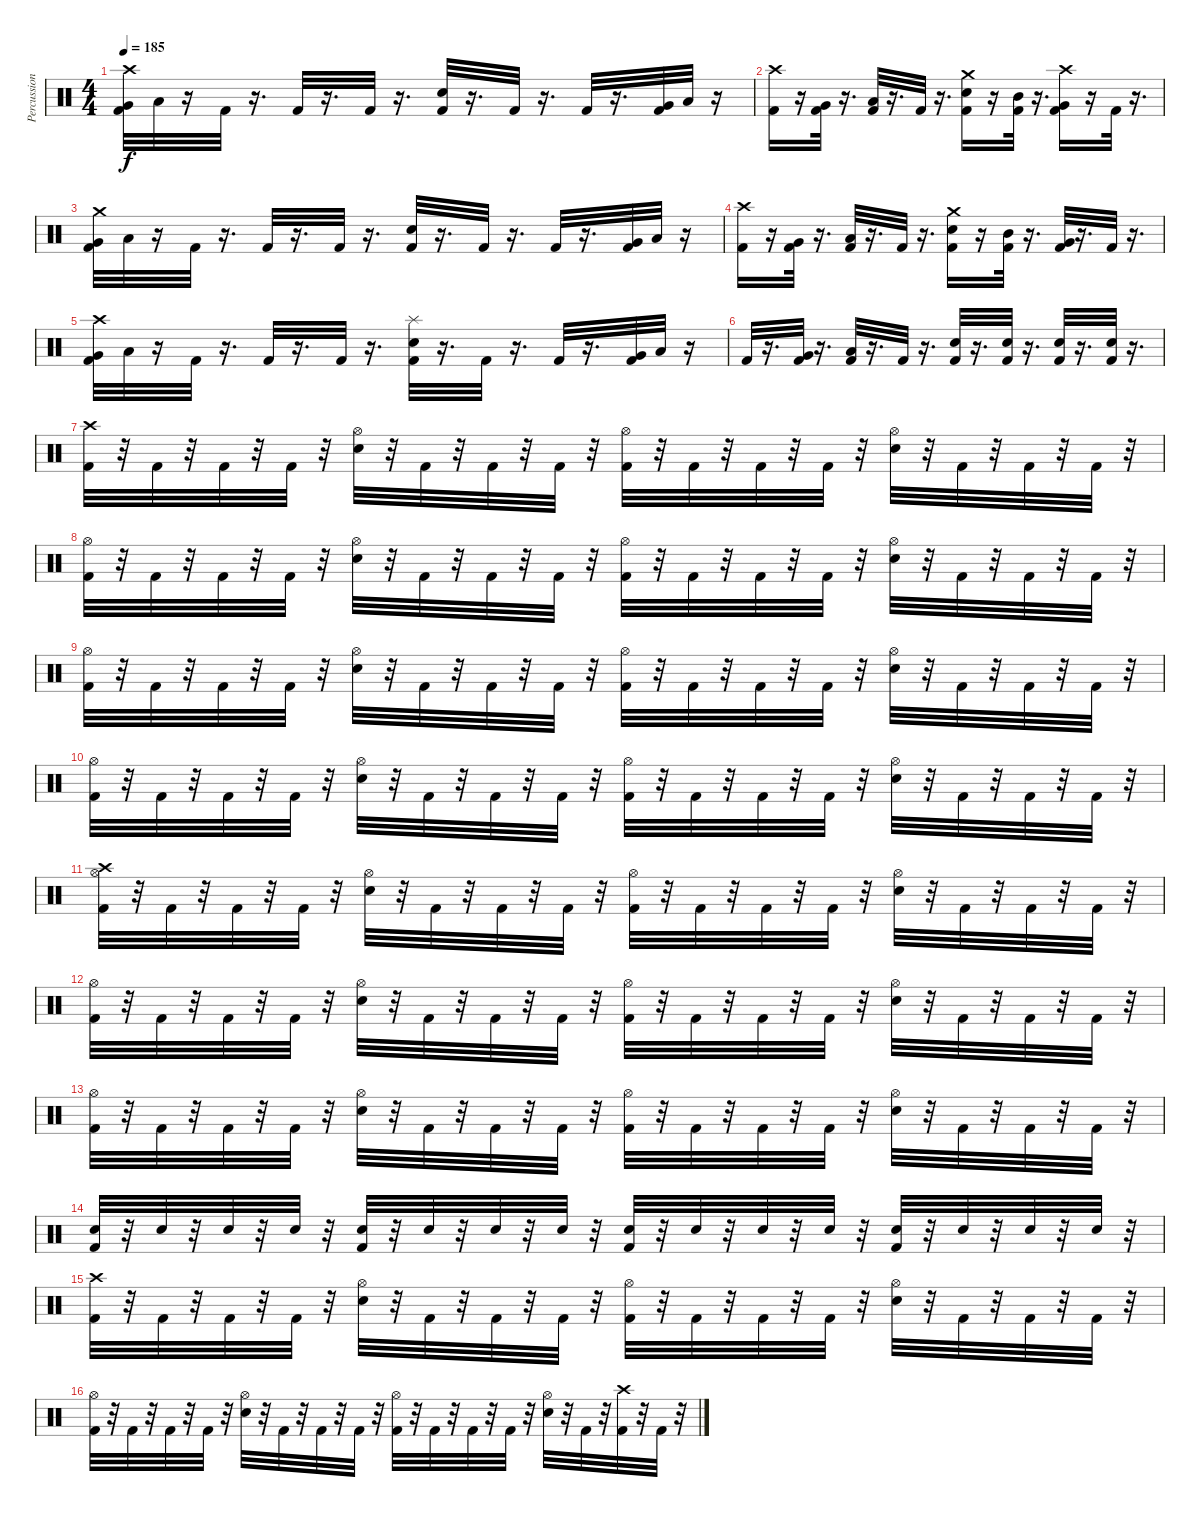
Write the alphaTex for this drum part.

\track ("Percussion" "Percussion") {instrument percussion}
\staff {score}
\articulation defaults
\ts (4 4)
\tempo 185
\clef neutral
\ks c
("Kick (hit) 2" "Very Low Tom (hit)" "Crash high (hit)").32{dy f} "Low Floor Tom (hit)".32 r.16 "Kick (hit) 2".32 r.16{d} "Kick (hit) 2".32 r.16{d} "Kick (hit) 2".32 r.16{d} ("Kick (hit) 2" "Snare (hit) 2").32 r.16{d} "Kick (hit) 2".32 r.16{d} "Kick (hit) 2".32 r.16{d} ("Kick (hit) 2" "Very Low Tom (hit)").32 "Low Floor Tom (hit)".32 r.16 |
("Kick (hit) 2" "Crash high (hit)").16 r.16 ("Kick (hit) 2" "Very Low Tom (hit)").32 r.16{d} ("Kick (hit) 2" "Low Floor Tom (hit)").32 r.16{d} "Kick (hit) 2".32 r.16{d} ("Kick (hit) 2" "Snare (hit) 2" "Crash medium (hit)").16 r.16 ("Kick (hit) 2" "Mid Tom (hit)").32 r.16{d} ("Kick (hit) 2" "Very Low Tom (hit)" "Crash high (hit)").16 r.16 "Kick (hit) 2".32 r.16{d} |
("Kick (hit) 2" "Very Low Tom (hit)" "Crash medium (hit)").32 "Low Floor Tom (hit)".32 r.16 "Kick (hit) 2".32 r.16{d} "Kick (hit) 2".32 r.16{d} "Kick (hit) 2".32 r.16{d} ("Kick (hit) 2" "Snare (hit) 2").32 r.16{d} "Kick (hit) 2".32 r.16{d} "Kick (hit) 2".32 r.16{d} ("Kick (hit) 2" "Very Low Tom (hit)").32 "Low Floor Tom (hit)".32 r.16 |
("Kick (hit) 2" "Crash high (hit)").16 r.16 ("Kick (hit) 2" "Very Low Tom (hit)").32 r.16{d} ("Kick (hit) 2" "Low Floor Tom (hit)").32 r.16{d} "Kick (hit) 2".32 r.16{d} ("Kick (hit) 2" "Snare (hit) 2" "Crash medium (hit)").16 r.16 ("Kick (hit) 2" "Mid Tom (hit)").32 r.16{d} ("Kick (hit) 2" "Very Low Tom (hit)").32 r.16{d} "Kick (hit) 2".32 r.16{d} |
("Kick (hit) 2" "Very Low Tom (hit)" "Crash high (hit)").32 "Low Floor Tom (hit)".32 r.16 "Kick (hit) 2".32 r.16{d} "Kick (hit) 2".32 r.16{d} "Kick (hit) 2".32 r.16{d} ("Kick (hit) 2" "Snare (hit) 2" "Splash (hit)").32 r.16{d} "Kick (hit) 2".32 r.16{d} "Kick (hit) 2".32 r.16{d} ("Kick (hit) 2" "Very Low Tom (hit)").32 "Low Floor Tom (hit)".32 r.16 |
"Kick (hit) 2".32 r.16{d} ("Kick (hit) 2" "Very Low Tom (hit)").32 r.16{d} ("Kick (hit) 2" "Low Floor Tom (hit)").32 r.16{d} "Kick (hit) 2".32 r.16{d} ("Kick (hit) 2" "Snare (hit) 2").32 r.16{d} ("Kick (hit) 2" "Snare (hit) 2").32 r.16{d} ("Kick (hit) 2" "Snare (hit) 2").32 r.16{d} ("Kick (hit) 2" "Snare (hit) 2").32 r.16{d} |
("Kick (hit) 2" "Crash high (hit)").32 r.32 "Kick (hit) 2".32 r.32 "Kick (hit) 2".32 r.32 "Kick (hit) 2".32 r.32 ("Snare (hit) 2" "Hi-Hat (open)").32 r.32 "Kick (hit) 2".32 r.32 "Kick (hit) 2".32 r.32 "Kick (hit) 2".32 r.32 ("Kick (hit) 2" "Hi-Hat (open)").32 r.32 "Kick (hit) 2".32 r.32 "Kick (hit) 2".32 r.32 "Kick (hit) 2".32 r.32 ("Snare (hit) 2" "Hi-Hat (open)").32 r.32 "Kick (hit) 2".32 r.32 "Kick (hit) 2".32 r.32 "Kick (hit) 2".32 r.32 |
("Kick (hit) 2" "Hi-Hat (open)").32 r.32 "Kick (hit) 2".32 r.32 "Kick (hit) 2".32 r.32 "Kick (hit) 2".32 r.32 ("Snare (hit) 2" "Hi-Hat (open)").32 r.32 "Kick (hit) 2".32 r.32 "Kick (hit) 2".32 r.32 "Kick (hit) 2".32 r.32 ("Kick (hit) 2" "Hi-Hat (open)").32 r.32 "Kick (hit) 2".32 r.32 "Kick (hit) 2".32 r.32 "Kick (hit) 2".32 r.32 ("Snare (hit) 2" "Hi-Hat (open)").32 r.32 "Kick (hit) 2".32 r.32 "Kick (hit) 2".32 r.32 "Kick (hit) 2".32 r.32 |
("Kick (hit) 2" "Hi-Hat (open)").32 r.32 "Kick (hit) 2".32 r.32 "Kick (hit) 2".32 r.32 "Kick (hit) 2".32 r.32 ("Snare (hit) 2" "Hi-Hat (open)").32 r.32 "Kick (hit) 2".32 r.32 "Kick (hit) 2".32 r.32 "Kick (hit) 2".32 r.32 ("Kick (hit) 2" "Hi-Hat (open)").32 r.32 "Kick (hit) 2".32 r.32 "Kick (hit) 2".32 r.32 "Kick (hit) 2".32 r.32 ("Snare (hit) 2" "Hi-Hat (open)").32 r.32 "Kick (hit) 2".32 r.32 "Kick (hit) 2".32 r.32 "Kick (hit) 2".32 r.32 |
("Kick (hit) 2" "Hi-Hat (open)").32 r.32 "Kick (hit) 2".32 r.32 "Kick (hit) 2".32 r.32 "Kick (hit) 2".32 r.32 ("Snare (hit) 2" "Hi-Hat (open)").32 r.32 "Kick (hit) 2".32 r.32 "Kick (hit) 2".32 r.32 "Kick (hit) 2".32 r.32 ("Kick (hit) 2" "Hi-Hat (open)").32 r.32 "Kick (hit) 2".32 r.32 "Kick (hit) 2".32 r.32 "Kick (hit) 2".32 r.32 ("Snare (hit) 2" "Hi-Hat (open)").32 r.32 "Kick (hit) 2".32 r.32 "Kick (hit) 2".32 r.32 "Kick (hit) 2".32 r.32 |
("Kick (hit) 2" "Hi-Hat (open)" "Crash high (hit)").32 r.32 "Kick (hit) 2".32 r.32 "Kick (hit) 2".32 r.32 "Kick (hit) 2".32 r.32 ("Snare (hit) 2" "Hi-Hat (open)").32 r.32 "Kick (hit) 2".32 r.32 "Kick (hit) 2".32 r.32 "Kick (hit) 2".32 r.32 ("Kick (hit) 2" "Hi-Hat (open)").32 r.32 "Kick (hit) 2".32 r.32 "Kick (hit) 2".32 r.32 "Kick (hit) 2".32 r.32 ("Snare (hit) 2" "Hi-Hat (open)").32 r.32 "Kick (hit) 2".32 r.32 "Kick (hit) 2".32 r.32 "Kick (hit) 2".32 r.32 |
("Kick (hit) 2" "Hi-Hat (open)").32 r.32 "Kick (hit) 2".32 r.32 "Kick (hit) 2".32 r.32 "Kick (hit) 2".32 r.32 ("Snare (hit) 2" "Hi-Hat (open)").32 r.32 "Kick (hit) 2".32 r.32 "Kick (hit) 2".32 r.32 "Kick (hit) 2".32 r.32 ("Kick (hit) 2" "Hi-Hat (open)").32 r.32 "Kick (hit) 2".32 r.32 "Kick (hit) 2".32 r.32 "Kick (hit) 2".32 r.32 ("Snare (hit) 2" "Hi-Hat (open)").32 r.32 "Kick (hit) 2".32 r.32 "Kick (hit) 2".32 r.32 "Kick (hit) 2".32 r.32 |
("Kick (hit) 2" "Hi-Hat (open)").32 r.32 "Kick (hit) 2".32 r.32 "Kick (hit) 2".32 r.32 "Kick (hit) 2".32 r.32 ("Snare (hit) 2" "Hi-Hat (open)").32 r.32 "Kick (hit) 2".32 r.32 "Kick (hit) 2".32 r.32 "Kick (hit) 2".32 r.32 ("Kick (hit) 2" "Hi-Hat (open)").32 r.32 "Kick (hit) 2".32 r.32 "Kick (hit) 2".32 r.32 "Kick (hit) 2".32 r.32 ("Snare (hit) 2" "Hi-Hat (open)").32 r.32 "Kick (hit) 2".32 r.32 "Kick (hit) 2".32 r.32 "Kick (hit) 2".32 r.32 |
("Kick (hit) 2" "Snare (hit) 2").32 r.32 "Snare (hit) 2".32 r.32 "Snare (hit) 2".32 r.32 "Snare (hit) 2".32 r.32 ("Kick (hit) 2" "Snare (hit) 2").32 r.32 "Snare (hit) 2".32 r.32 "Snare (hit) 2".32 r.32 "Snare (hit) 2".32 r.32 ("Kick (hit) 2" "Snare (hit) 2").32 r.32 "Snare (hit) 2".32 r.32 "Snare (hit) 2".32 r.32 "Snare (hit) 2".32 r.32 ("Kick (hit) 2" "Snare (hit) 2").32 r.32 "Snare (hit) 2".32 r.32 "Snare (hit) 2".32 r.32 "Snare (hit) 2".32 r.32 |
("Kick (hit) 2" "Crash high (hit)").32 r.32 "Kick (hit) 2".32 r.32 "Kick (hit) 2".32 r.32 "Kick (hit) 2".32 r.32 ("Snare (hit) 2" "Hi-Hat (open)").32 r.32 "Kick (hit) 2".32 r.32 "Kick (hit) 2".32 r.32 "Kick (hit) 2".32 r.32 ("Kick (hit) 2" "Hi-Hat (open)").32 r.32 "Kick (hit) 2".32 r.32 "Kick (hit) 2".32 r.32 "Kick (hit) 2".32 r.32 ("Snare (hit) 2" "Hi-Hat (open)").32 r.32 "Kick (hit) 2".32 r.32 "Kick (hit) 2".32 r.32 "Kick (hit) 2".32 r.32 |
("Kick (hit) 2" "Hi-Hat (open)").32 r.32 "Kick (hit) 2".32 r.32 "Kick (hit) 2".32 r.32 "Kick (hit) 2".32 r.32 ("Snare (hit) 2" "Hi-Hat (open)").32 r.32 "Kick (hit) 2".32 r.32 "Kick (hit) 2".32 r.32 "Kick (hit) 2".32 r.32 ("Kick (hit) 2" "Hi-Hat (open)").32 r.32 "Kick (hit) 2".32 r.32 "Kick (hit) 2".32 r.32 "Kick (hit) 2".32 r.32 ("Snare (hit) 2" "Hi-Hat (open)").32 r.32 "Kick (hit) 2".32 r.32 ("Kick (hit) 2" "Crash high (hit)").32 r.32 "Kick (hit) 2".32 r.32
